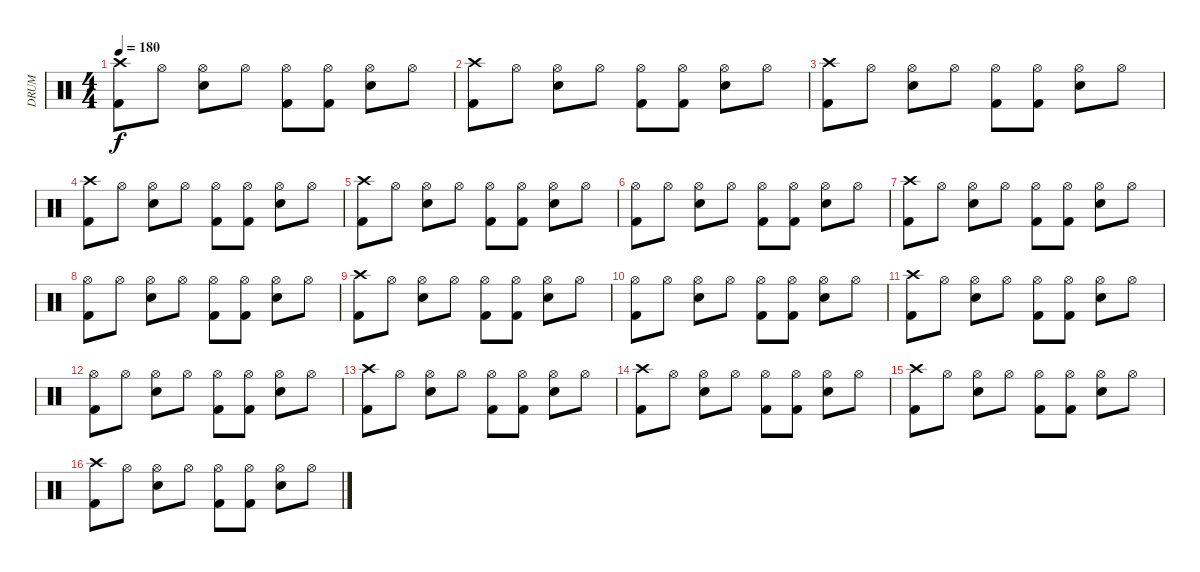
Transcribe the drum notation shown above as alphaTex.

\track ("DRUM" "DRUM") {instrument percussion}
\staff {score}
\articulation defaults
\ts (4 4)
\tempo 180
\clef neutral
\ks c
("Crash high (hit)" "Kick (hit) 2").8{dy f} "Hi-Hat (open)".8{volume 10} ("Hi-Hat (open)" "Snare (hit) 2").8 "Hi-Hat (open)".8{volume 10} ("Hi-Hat (open)" "Kick (hit) 2").8 ("Hi-Hat (open)" "Kick (hit) 2").8{volume 10} ("Hi-Hat (open)" "Snare (hit) 2").8 "Hi-Hat (open)".8{volume 10} |
("Crash high (hit)" "Kick (hit) 2").8 "Hi-Hat (open)".8{volume 10} ("Hi-Hat (open)" "Snare (hit) 2").8 "Hi-Hat (open)".8{volume 10} ("Hi-Hat (open)" "Kick (hit) 2").8 ("Hi-Hat (open)" "Kick (hit) 2").8{volume 10} ("Hi-Hat (open)" "Snare (hit) 2").8 "Hi-Hat (open)".8{volume 10} |
("Crash high (hit)" "Kick (hit) 2").8 "Hi-Hat (open)".8{volume 10} ("Hi-Hat (open)" "Snare (hit) 2").8 "Hi-Hat (open)".8{volume 10} ("Hi-Hat (open)" "Kick (hit) 2").8 ("Hi-Hat (open)" "Kick (hit) 2").8{volume 10} ("Hi-Hat (open)" "Snare (hit) 2").8 "Hi-Hat (open)".8{volume 10} |
("Crash high (hit)" "Kick (hit) 2").8 "Hi-Hat (open)".8{volume 10} ("Hi-Hat (open)" "Snare (hit) 2").8 "Hi-Hat (open)".8{volume 10} ("Hi-Hat (open)" "Kick (hit) 2").8 ("Hi-Hat (open)" "Kick (hit) 2").8{volume 10} ("Hi-Hat (open)" "Snare (hit) 2").8 "Hi-Hat (open)".8{volume 10} |
("Crash high (hit)" "Kick (hit) 2").8 "Hi-Hat (open)".8{volume 10} ("Hi-Hat (open)" "Snare (hit) 2").8 "Hi-Hat (open)".8{volume 10} ("Hi-Hat (open)" "Kick (hit) 2").8 ("Hi-Hat (open)" "Kick (hit) 2").8{volume 10} ("Hi-Hat (open)" "Snare (hit) 2").8 "Hi-Hat (open)".8{volume 10} |
("Hi-Hat (open)" "Kick (hit) 2").8 "Hi-Hat (open)".8{volume 10} ("Hi-Hat (open)" "Snare (hit) 2").8 "Hi-Hat (open)".8{volume 10} ("Hi-Hat (open)" "Kick (hit) 2").8 ("Hi-Hat (open)" "Kick (hit) 2").8{volume 10} ("Hi-Hat (open)" "Snare (hit) 2").8 "Hi-Hat (open)".8{volume 10} |
("Crash high (hit)" "Kick (hit) 2").8 "Hi-Hat (open)".8{volume 10} ("Hi-Hat (open)" "Snare (hit) 2").8 "Hi-Hat (open)".8{volume 10} ("Hi-Hat (open)" "Kick (hit) 2").8 ("Hi-Hat (open)" "Kick (hit) 2").8{volume 10} ("Hi-Hat (open)" "Snare (hit) 2").8 "Hi-Hat (open)".8{volume 10} |
("Hi-Hat (open)" "Kick (hit) 2").8 "Hi-Hat (open)".8{volume 10} ("Hi-Hat (open)" "Snare (hit) 2").8 "Hi-Hat (open)".8{volume 10} ("Hi-Hat (open)" "Kick (hit) 2").8 ("Hi-Hat (open)" "Kick (hit) 2").8{volume 10} ("Hi-Hat (open)" "Snare (hit) 2").8 "Hi-Hat (open)".8{volume 10} |
("Crash high (hit)" "Kick (hit) 2").8 "Hi-Hat (open)".8{volume 10} ("Hi-Hat (open)" "Snare (hit) 2").8 "Hi-Hat (open)".8{volume 10} ("Hi-Hat (open)" "Kick (hit) 2").8 ("Hi-Hat (open)" "Kick (hit) 2").8{volume 10} ("Hi-Hat (open)" "Snare (hit) 2").8 "Hi-Hat (open)".8{volume 10} |
("Hi-Hat (open)" "Kick (hit) 2").8 "Hi-Hat (open)".8{volume 10} ("Hi-Hat (open)" "Snare (hit) 2").8 "Hi-Hat (open)".8{volume 10} ("Hi-Hat (open)" "Kick (hit) 2").8 ("Hi-Hat (open)" "Kick (hit) 2").8{volume 10} ("Hi-Hat (open)" "Snare (hit) 2").8 "Hi-Hat (open)".8{volume 10} |
("Crash high (hit)" "Kick (hit) 2").8 "Hi-Hat (open)".8{volume 10} ("Hi-Hat (open)" "Snare (hit) 2").8 "Hi-Hat (open)".8{volume 10} ("Hi-Hat (open)" "Kick (hit) 2").8 ("Hi-Hat (open)" "Kick (hit) 2").8{volume 10} ("Hi-Hat (open)" "Snare (hit) 2").8 "Hi-Hat (open)".8{volume 10} |
("Hi-Hat (open)" "Kick (hit) 2").8 "Hi-Hat (open)".8{volume 10} ("Hi-Hat (open)" "Snare (hit) 2").8 "Hi-Hat (open)".8{volume 10} ("Hi-Hat (open)" "Kick (hit) 2").8 ("Hi-Hat (open)" "Kick (hit) 2").8{volume 10} ("Hi-Hat (open)" "Snare (hit) 2").8 "Hi-Hat (open)".8{volume 10} |
("Crash high (hit)" "Kick (hit) 2").8 "Hi-Hat (open)".8{volume 10} ("Hi-Hat (open)" "Snare (hit) 2").8 "Hi-Hat (open)".8{volume 10} ("Hi-Hat (open)" "Kick (hit) 2").8 ("Hi-Hat (open)" "Kick (hit) 2").8{volume 10} ("Hi-Hat (open)" "Snare (hit) 2").8 "Hi-Hat (open)".8{volume 10} |
("Crash high (hit)" "Kick (hit) 2").8 "Hi-Hat (open)".8{volume 10} ("Hi-Hat (open)" "Snare (hit) 2").8 "Hi-Hat (open)".8{volume 10} ("Hi-Hat (open)" "Kick (hit) 2").8 ("Hi-Hat (open)" "Kick (hit) 2").8{volume 10} ("Hi-Hat (open)" "Snare (hit) 2").8 "Hi-Hat (open)".8{volume 10} |
("Crash high (hit)" "Kick (hit) 2").8 "Hi-Hat (open)".8{volume 10} ("Hi-Hat (open)" "Snare (hit) 2").8 "Hi-Hat (open)".8{volume 10} ("Hi-Hat (open)" "Kick (hit) 2").8 ("Hi-Hat (open)" "Kick (hit) 2").8{volume 10} ("Hi-Hat (open)" "Snare (hit) 2").8 "Hi-Hat (open)".8{volume 10} |
("Crash high (hit)" "Kick (hit) 2").8 "Hi-Hat (open)".8{volume 10} ("Hi-Hat (open)" "Snare (hit) 2").8 "Hi-Hat (open)".8{volume 10} ("Hi-Hat (open)" "Kick (hit) 2").8 ("Hi-Hat (open)" "Kick (hit) 2").8{volume 10} ("Hi-Hat (open)" "Snare (hit) 2").8 "Hi-Hat (open)".8{volume 10}
